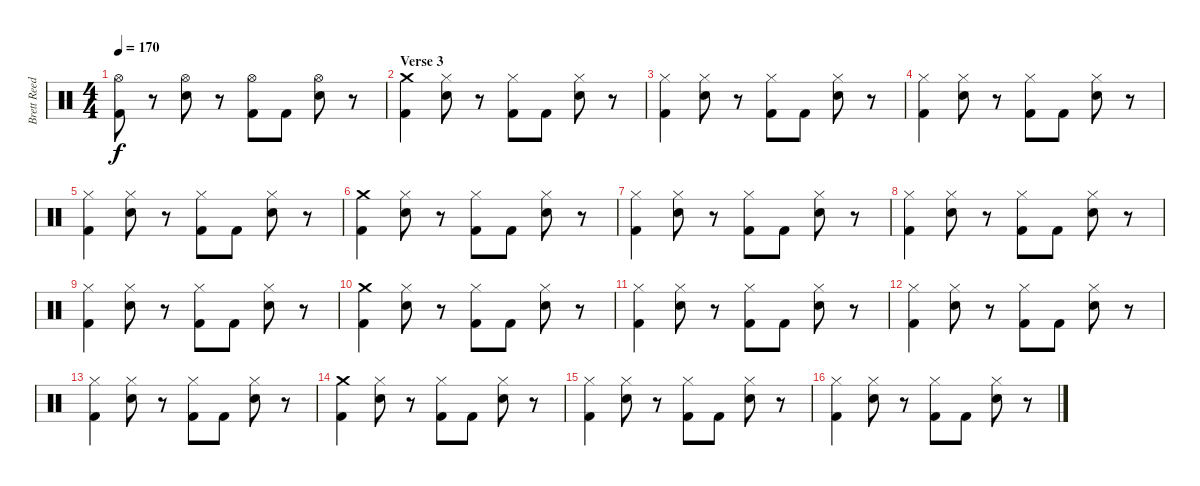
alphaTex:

\track ("Brett Reed" "Brett Reed") {instrument percussion}
\staff {score}
\articulation defaults
\ts (4 4)
\tempo 170
\clef neutral
\ks c
("Hi-Hat (open)" "Kick (hit) 2").8{dy f} r.8 ("Hi-Hat (open)" "Snare (hit) 2").8 r.8 ("Hi-Hat (open)" "Kick (hit) 2").8 "Kick (hit) 2".8 ("Hi-Hat (open)" "Snare (hit) 2").8 r.8 |
\section ("" "Verse 3")
("Crash medium (hit)" "Kick (hit) 2").4 ("Hi-Hat (closed)" "Snare (hit) 2").8 r.8 ("Hi-Hat (closed)" "Kick (hit) 2").8 "Kick (hit) 2".8 ("Hi-Hat (closed)" "Snare (hit) 2").8 r.8 |
("Hi-Hat (closed)" "Kick (hit) 2").4 ("Hi-Hat (closed)" "Snare (hit) 2").8 r.8 ("Hi-Hat (closed)" "Kick (hit) 2").8 "Kick (hit) 2".8 ("Hi-Hat (closed)" "Snare (hit) 2").8 r.8 |
("Hi-Hat (closed)" "Kick (hit) 2").4 ("Hi-Hat (closed)" "Snare (hit) 2").8 r.8 ("Hi-Hat (closed)" "Kick (hit) 2").8 "Kick (hit) 2".8 ("Hi-Hat (closed)" "Snare (hit) 2").8 r.8 |
("Hi-Hat (closed)" "Kick (hit) 2").4 ("Hi-Hat (closed)" "Snare (hit) 2").8 r.8 ("Hi-Hat (closed)" "Kick (hit) 2").8 "Kick (hit) 2".8 ("Hi-Hat (closed)" "Snare (hit) 2").8 r.8 |
("Crash medium (hit)" "Kick (hit) 2").4 ("Hi-Hat (closed)" "Snare (hit) 2").8 r.8 ("Hi-Hat (closed)" "Kick (hit) 2").8 "Kick (hit) 2".8 ("Hi-Hat (closed)" "Snare (hit) 2").8 r.8 |
("Hi-Hat (closed)" "Kick (hit) 2").4 ("Hi-Hat (closed)" "Snare (hit) 2").8 r.8 ("Hi-Hat (closed)" "Kick (hit) 2").8 "Kick (hit) 2".8 ("Hi-Hat (closed)" "Snare (hit) 2").8 r.8 |
("Hi-Hat (closed)" "Kick (hit) 2").4 ("Hi-Hat (closed)" "Snare (hit) 2").8 r.8 ("Hi-Hat (closed)" "Kick (hit) 2").8 "Kick (hit) 2".8 ("Hi-Hat (closed)" "Snare (hit) 2").8 r.8 |
("Hi-Hat (closed)" "Kick (hit) 2").4 ("Hi-Hat (closed)" "Snare (hit) 2").8 r.8 ("Hi-Hat (closed)" "Kick (hit) 2").8 "Kick (hit) 2".8 ("Hi-Hat (closed)" "Snare (hit) 2").8 r.8 |
("Crash medium (hit)" "Kick (hit) 2").4 ("Hi-Hat (closed)" "Snare (hit) 2").8 r.8 ("Hi-Hat (closed)" "Kick (hit) 2").8 "Kick (hit) 2".8 ("Hi-Hat (closed)" "Snare (hit) 2").8 r.8 |
("Hi-Hat (closed)" "Kick (hit) 2").4 ("Hi-Hat (closed)" "Snare (hit) 2").8 r.8 ("Hi-Hat (closed)" "Kick (hit) 2").8 "Kick (hit) 2".8 ("Hi-Hat (closed)" "Snare (hit) 2").8 r.8 |
("Hi-Hat (closed)" "Kick (hit) 2").4 ("Hi-Hat (closed)" "Snare (hit) 2").8 r.8 ("Hi-Hat (closed)" "Kick (hit) 2").8 "Kick (hit) 2".8 ("Hi-Hat (closed)" "Snare (hit) 2").8 r.8 |
("Hi-Hat (closed)" "Kick (hit) 2").4 ("Hi-Hat (closed)" "Snare (hit) 2").8 r.8 ("Hi-Hat (closed)" "Kick (hit) 2").8 "Kick (hit) 2".8 ("Hi-Hat (closed)" "Snare (hit) 2").8 r.8 |
("Crash medium (hit)" "Kick (hit) 2").4 ("Hi-Hat (closed)" "Snare (hit) 2").8 r.8 ("Hi-Hat (closed)" "Kick (hit) 2").8 "Kick (hit) 2".8 ("Hi-Hat (closed)" "Snare (hit) 2").8 r.8 |
("Hi-Hat (closed)" "Kick (hit) 2").4 ("Hi-Hat (closed)" "Snare (hit) 2").8 r.8 ("Hi-Hat (closed)" "Kick (hit) 2").8 "Kick (hit) 2".8 ("Hi-Hat (closed)" "Snare (hit) 2").8 r.8 |
("Hi-Hat (closed)" "Kick (hit) 2").4 ("Hi-Hat (closed)" "Snare (hit) 2").8 r.8 ("Hi-Hat (closed)" "Kick (hit) 2").8 "Kick (hit) 2".8 ("Hi-Hat (closed)" "Snare (hit) 2").8 r.8
